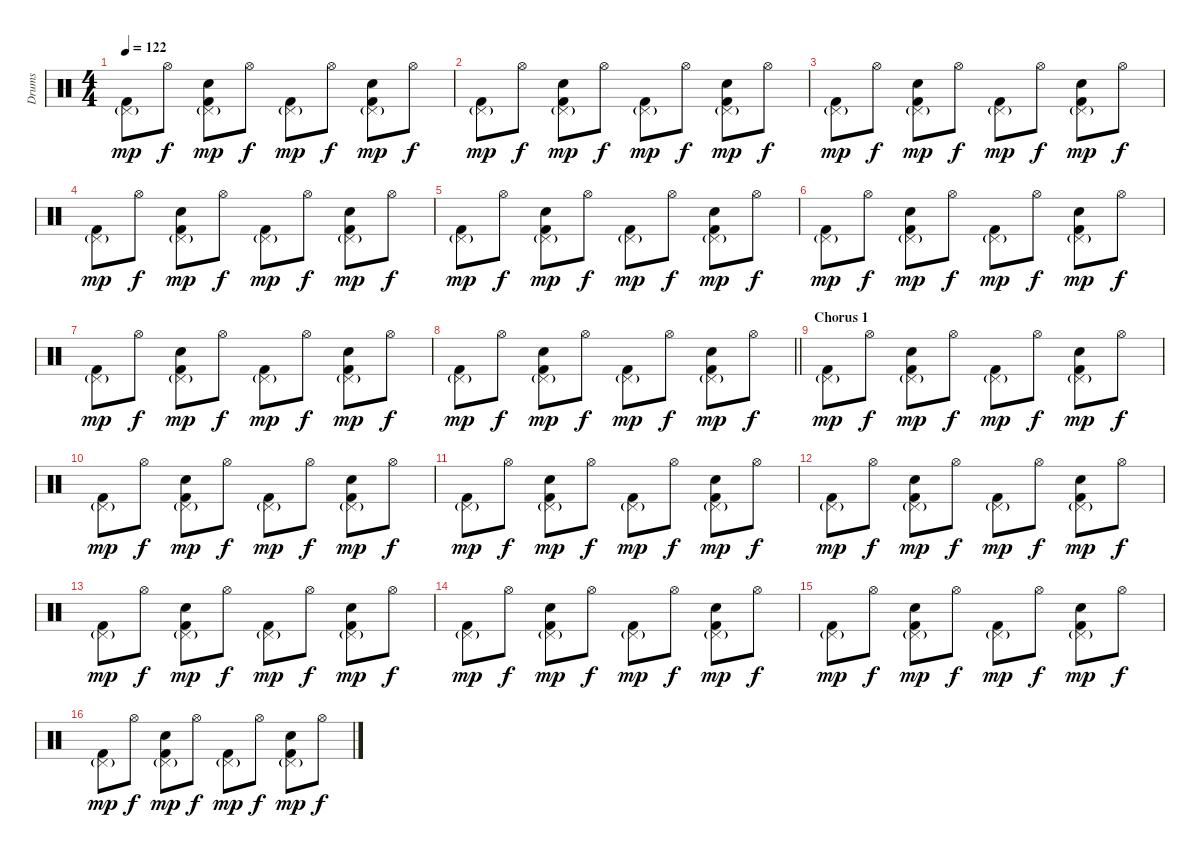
\track ("Drums" "Drums") {instrument percussion}
\staff {score}
\articulation defaults
\ts (4 4)
\tempo 122
\clef neutral
\ks c
("Pedal Hi-Hat (hit)"{g} "Kick (hit) 2").8{dy mp} "Hi-Hat (open)".8{dy f} ("Pedal Hi-Hat (hit)"{g} "Snare (hit) 2" "Kick (hit) 2").8{dy mp} "Hi-Hat (open)".8{dy f} ("Pedal Hi-Hat (hit)"{g} "Kick (hit) 2").8{dy mp} "Hi-Hat (open)".8{dy f} ("Pedal Hi-Hat (hit)"{g} "Snare (hit) 2" "Kick (hit) 2").8{dy mp} "Hi-Hat (open)".8{dy f} |
("Pedal Hi-Hat (hit)"{g} "Kick (hit) 2").8{dy mp} "Hi-Hat (open)".8{dy f} ("Pedal Hi-Hat (hit)"{g} "Snare (hit) 2" "Kick (hit) 2").8{dy mp} "Hi-Hat (open)".8{dy f} ("Pedal Hi-Hat (hit)"{g} "Kick (hit) 2").8{dy mp} "Hi-Hat (open)".8{dy f} ("Pedal Hi-Hat (hit)"{g} "Snare (hit) 2" "Kick (hit) 2").8{dy mp} "Hi-Hat (open)".8{dy f} |
("Pedal Hi-Hat (hit)"{g} "Kick (hit) 2").8{dy mp} "Hi-Hat (open)".8{dy f} ("Pedal Hi-Hat (hit)"{g} "Snare (hit) 2" "Kick (hit) 2").8{dy mp} "Hi-Hat (open)".8{dy f} ("Pedal Hi-Hat (hit)"{g} "Kick (hit) 2").8{dy mp} "Hi-Hat (open)".8{dy f} ("Pedal Hi-Hat (hit)"{g} "Snare (hit) 2" "Kick (hit) 2").8{dy mp} "Hi-Hat (open)".8{dy f} |
("Pedal Hi-Hat (hit)"{g} "Kick (hit) 2").8{dy mp} "Hi-Hat (open)".8{dy f} ("Pedal Hi-Hat (hit)"{g} "Snare (hit) 2" "Kick (hit) 2").8{dy mp} "Hi-Hat (open)".8{dy f} ("Pedal Hi-Hat (hit)"{g} "Kick (hit) 2").8{dy mp} "Hi-Hat (open)".8{dy f} ("Pedal Hi-Hat (hit)"{g} "Snare (hit) 2" "Kick (hit) 2").8{dy mp} "Hi-Hat (open)".8{dy f} |
("Pedal Hi-Hat (hit)"{g} "Kick (hit) 2").8{dy mp} "Hi-Hat (open)".8{dy f} ("Pedal Hi-Hat (hit)"{g} "Snare (hit) 2" "Kick (hit) 2").8{dy mp} "Hi-Hat (open)".8{dy f} ("Pedal Hi-Hat (hit)"{g} "Kick (hit) 2").8{dy mp} "Hi-Hat (open)".8{dy f} ("Pedal Hi-Hat (hit)"{g} "Snare (hit) 2" "Kick (hit) 2").8{dy mp} "Hi-Hat (open)".8{dy f} |
("Pedal Hi-Hat (hit)"{g} "Kick (hit) 2").8{dy mp} "Hi-Hat (open)".8{dy f} ("Pedal Hi-Hat (hit)"{g} "Snare (hit) 2" "Kick (hit) 2").8{dy mp} "Hi-Hat (open)".8{dy f} ("Pedal Hi-Hat (hit)"{g} "Kick (hit) 2").8{dy mp} "Hi-Hat (open)".8{dy f} ("Pedal Hi-Hat (hit)"{g} "Snare (hit) 2" "Kick (hit) 2").8{dy mp} "Hi-Hat (open)".8{dy f} |
("Pedal Hi-Hat (hit)"{g} "Kick (hit) 2").8{dy mp} "Hi-Hat (open)".8{dy f} ("Pedal Hi-Hat (hit)"{g} "Snare (hit) 2" "Kick (hit) 2").8{dy mp} "Hi-Hat (open)".8{dy f} ("Pedal Hi-Hat (hit)"{g} "Kick (hit) 2").8{dy mp} "Hi-Hat (open)".8{dy f} ("Pedal Hi-Hat (hit)"{g} "Snare (hit) 2" "Kick (hit) 2").8{dy mp} "Hi-Hat (open)".8{dy f} |
\barLineRight lightlight
("Pedal Hi-Hat (hit)"{g} "Kick (hit) 2").8{dy mp} "Hi-Hat (open)".8{dy f} ("Pedal Hi-Hat (hit)"{g} "Snare (hit) 2" "Kick (hit) 2").8{dy mp} "Hi-Hat (open)".8{dy f} ("Pedal Hi-Hat (hit)"{g} "Kick (hit) 2").8{dy mp} "Hi-Hat (open)".8{dy f} ("Pedal Hi-Hat (hit)"{g} "Snare (hit) 2" "Kick (hit) 2").8{dy mp} "Hi-Hat (open)".8{dy f} |
\section ("" "Chorus 1")
("Pedal Hi-Hat (hit)"{g} "Kick (hit) 2").8{dy mp} "Hi-Hat (open)".8{dy f} ("Pedal Hi-Hat (hit)"{g} "Snare (hit) 2" "Kick (hit) 2").8{dy mp} "Hi-Hat (open)".8{dy f} ("Pedal Hi-Hat (hit)"{g} "Kick (hit) 2").8{dy mp} "Hi-Hat (open)".8{dy f} ("Pedal Hi-Hat (hit)"{g} "Snare (hit) 2" "Kick (hit) 2").8{dy mp} "Hi-Hat (open)".8{dy f} |
("Pedal Hi-Hat (hit)"{g} "Kick (hit) 2").8{dy mp} "Hi-Hat (open)".8{dy f} ("Pedal Hi-Hat (hit)"{g} "Snare (hit) 2" "Kick (hit) 2").8{dy mp} "Hi-Hat (open)".8{dy f} ("Pedal Hi-Hat (hit)"{g} "Kick (hit) 2").8{dy mp} "Hi-Hat (open)".8{dy f} ("Pedal Hi-Hat (hit)"{g} "Snare (hit) 2" "Kick (hit) 2").8{dy mp} "Hi-Hat (open)".8{dy f} |
("Pedal Hi-Hat (hit)"{g} "Kick (hit) 2").8{dy mp} "Hi-Hat (open)".8{dy f} ("Pedal Hi-Hat (hit)"{g} "Snare (hit) 2" "Kick (hit) 2").8{dy mp} "Hi-Hat (open)".8{dy f} ("Pedal Hi-Hat (hit)"{g} "Kick (hit) 2").8{dy mp} "Hi-Hat (open)".8{dy f} ("Pedal Hi-Hat (hit)"{g} "Snare (hit) 2" "Kick (hit) 2").8{dy mp} "Hi-Hat (open)".8{dy f} |
("Pedal Hi-Hat (hit)"{g} "Kick (hit) 2").8{dy mp} "Hi-Hat (open)".8{dy f} ("Pedal Hi-Hat (hit)"{g} "Snare (hit) 2" "Kick (hit) 2").8{dy mp} "Hi-Hat (open)".8{dy f} ("Pedal Hi-Hat (hit)"{g} "Kick (hit) 2").8{dy mp} "Hi-Hat (open)".8{dy f} ("Pedal Hi-Hat (hit)"{g} "Snare (hit) 2" "Kick (hit) 2").8{dy mp} "Hi-Hat (open)".8{dy f} |
("Pedal Hi-Hat (hit)"{g} "Kick (hit) 2").8{dy mp} "Hi-Hat (open)".8{dy f} ("Pedal Hi-Hat (hit)"{g} "Snare (hit) 2" "Kick (hit) 2").8{dy mp} "Hi-Hat (open)".8{dy f} ("Pedal Hi-Hat (hit)"{g} "Kick (hit) 2").8{dy mp} "Hi-Hat (open)".8{dy f} ("Pedal Hi-Hat (hit)"{g} "Snare (hit) 2" "Kick (hit) 2").8{dy mp} "Hi-Hat (open)".8{dy f} |
("Pedal Hi-Hat (hit)"{g} "Kick (hit) 2").8{dy mp} "Hi-Hat (open)".8{dy f} ("Pedal Hi-Hat (hit)"{g} "Snare (hit) 2" "Kick (hit) 2").8{dy mp} "Hi-Hat (open)".8{dy f} ("Pedal Hi-Hat (hit)"{g} "Kick (hit) 2").8{dy mp} "Hi-Hat (open)".8{dy f} ("Pedal Hi-Hat (hit)"{g} "Snare (hit) 2" "Kick (hit) 2").8{dy mp} "Hi-Hat (open)".8{dy f} |
("Pedal Hi-Hat (hit)"{g} "Kick (hit) 2").8{dy mp} "Hi-Hat (open)".8{dy f} ("Pedal Hi-Hat (hit)"{g} "Snare (hit) 2" "Kick (hit) 2").8{dy mp} "Hi-Hat (open)".8{dy f} ("Pedal Hi-Hat (hit)"{g} "Kick (hit) 2").8{dy mp} "Hi-Hat (open)".8{dy f} ("Pedal Hi-Hat (hit)"{g} "Snare (hit) 2" "Kick (hit) 2").8{dy mp} "Hi-Hat (open)".8{dy f} |
("Pedal Hi-Hat (hit)"{g} "Kick (hit) 2").8{dy mp} "Hi-Hat (open)".8{dy f} ("Pedal Hi-Hat (hit)"{g} "Snare (hit) 2" "Kick (hit) 2").8{dy mp} "Hi-Hat (open)".8{dy f} ("Pedal Hi-Hat (hit)"{g} "Kick (hit) 2").8{dy mp} "Hi-Hat (open)".8{dy f} ("Pedal Hi-Hat (hit)"{g} "Snare (hit) 2" "Kick (hit) 2").8{dy mp} "Hi-Hat (open)".8{dy f}
